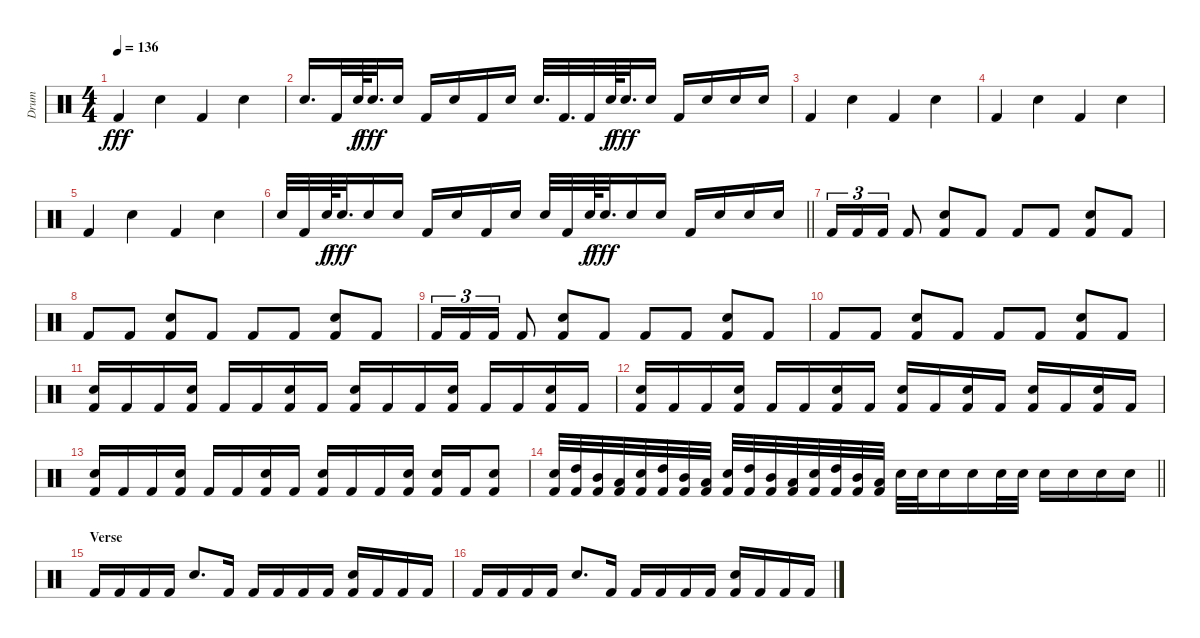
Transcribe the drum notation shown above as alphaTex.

\track ("Drum" "Drum") {instrument percussion}
\staff {score}
\articulation defaults
\ts (4 4)
\tempo 136
\clef neutral
\ks c "Kick (hit) 2".4{dy fff} "Electric Snare (hit)".4 "Kick (hit) 2".4 "Electric Snare (hit)".4
|
"Electric Snare (hit)".16{d} "Kick (hit) 2".32 "Electric Snare (hit)".64{dy f} "Electric Snare (hit)".32{d dy fff} "Electric Snare (hit)".16 "Kick (hit) 2".16 "Electric Snare (hit)".16 "Kick (hit) 2".16 "Electric Snare (hit)".16 "Electric Snare (hit)".32{d} "Kick (hit) 2".32{d} "Kick (hit) 2".32 "Electric Snare (hit)".64{dy f} "Electric Snare (hit)".32{d dy fff} "Electric Snare (hit)".16 "Kick (hit) 2".16 "Electric Snare (hit)".16 "Electric Snare (hit)".16 "Electric Snare (hit)".16 |
"Kick (hit) 2".4 "Electric Snare (hit)".4 "Kick (hit) 2".4 "Electric Snare (hit)".4 |
"Kick (hit) 2".4 "Electric Snare (hit)".4 "Kick (hit) 2".4 "Electric Snare (hit)".4 |
"Kick (hit) 2".4 "Electric Snare (hit)".4 "Kick (hit) 2".4 "Electric Snare (hit)".4 |
\barLineRight lightlight "Electric Snare (hit)".32 "Kick (hit) 2".32 "Electric Snare (hit)".64{dy f} "Electric Snare (hit)".32{d dy fff} "Electric Snare (hit)".16 "Electric Snare (hit)".16 "Kick (hit) 2".16 "Electric Snare (hit)".16 "Kick (hit) 2".16 "Electric Snare (hit)".16 "Electric Snare (hit)".32 "Kick (hit) 2".32 "Electric Snare (hit)".64{dy f} "Electric Snare (hit)".32{d dy fff} "Electric Snare (hit)".16 "Electric Snare (hit)".16 "Kick (hit) 2".16 "Electric Snare (hit)".16 "Electric Snare (hit)".16 "Electric Snare (hit)".16
|
"Kick (hit) 2".16{tu (3 2)} "Kick (hit) 2".16{tu (3 2)} "Kick (hit) 2".16{tu (3 2)} "Kick (hit) 2".8 ("Electric Snare (hit)" "Kick (hit) 2").8 "Kick (hit) 2".8 "Kick (hit) 2".8 "Kick (hit) 2".8 ("Electric Snare (hit)" "Kick (hit) 2").8 "Kick (hit) 2".8 |
"Kick (hit) 2".8 "Kick (hit) 2".8 ("Electric Snare (hit)" "Kick (hit) 2").8 "Kick (hit) 2".8 "Kick (hit) 2".8 "Kick (hit) 2".8 ("Electric Snare (hit)" "Kick (hit) 2").8 "Kick (hit) 2".8 |
"Kick (hit) 2".16{tu (3 2)} "Kick (hit) 2".16{tu (3 2)} "Kick (hit) 2".16{tu (3 2)} "Kick (hit) 2".8 ("Electric Snare (hit)" "Kick (hit) 2").8 "Kick (hit) 2".8 "Kick (hit) 2".8 "Kick (hit) 2".8 ("Electric Snare (hit)" "Kick (hit) 2").8 "Kick (hit) 2".8 |
"Kick (hit) 2".8 "Kick (hit) 2".8 ("Electric Snare (hit)" "Kick (hit) 2").8 "Kick (hit) 2".8 "Kick (hit) 2".8 "Kick (hit) 2".8 ("Electric Snare (hit)" "Kick (hit) 2").8 "Kick (hit) 2".8 |
("Electric Snare (hit)" "Kick (hit) 2").16 "Kick (hit) 2".16 "Kick (hit) 2".16 ("Electric Snare (hit)" "Kick (hit) 2").16 "Kick (hit) 2".16 "Kick (hit) 2".16 ("Electric Snare (hit)" "Kick (hit) 2").16 "Kick (hit) 2".16 ("Electric Snare (hit)" "Kick (hit) 2").16 "Kick (hit) 2".16 "Kick (hit) 2".16 ("Electric Snare (hit)" "Kick (hit) 2").16 "Kick (hit) 2".16 "Kick (hit) 2".16 ("Electric Snare (hit)" "Kick (hit) 2").16 "Kick (hit) 2".16 |
("Electric Snare (hit)" "Kick (hit) 2").16 "Kick (hit) 2".16 "Kick (hit) 2".16 ("Electric Snare (hit)" "Kick (hit) 2").16 "Kick (hit) 2".16 "Kick (hit) 2".16 ("Electric Snare (hit)" "Kick (hit) 2").16 "Kick (hit) 2".16 ("Electric Snare (hit)" "Kick (hit) 2").16 "Kick (hit) 2".16 ("Electric Snare (hit)" "Kick (hit) 2").16 "Kick (hit) 2".16 ("Electric Snare (hit)" "Kick (hit) 2").16 "Kick (hit) 2".16 ("Electric Snare (hit)" "Kick (hit) 2").16 "Kick (hit) 2".16 |
("Electric Snare (hit)" "Kick (hit) 2").16 "Kick (hit) 2".16 "Kick (hit) 2".16 ("Electric Snare (hit)" "Kick (hit) 2").16 "Kick (hit) 2".16 "Kick (hit) 2".16 ("Electric Snare (hit)" "Kick (hit) 2").16 "Kick (hit) 2".16 ("Electric Snare (hit)" "Kick (hit) 2").16 "Kick (hit) 2".16 "Kick (hit) 2".16 ("Electric Snare (hit)" "Kick (hit) 2").16 ("Electric Snare (hit)" "Kick (hit) 2").16 "Kick (hit) 2".16 ("Electric Snare (hit)" "Kick (hit) 2").8 |
\barLineRight lightlight
("Electric Snare (hit)" "Kick (hit) 2").32 ("High Tom (hit)" "Kick (hit) 2").32 ("Mid Tom (hit)" "Kick (hit) 2").32 ("Low Tom (hit)" "Kick (hit) 2").32 ("Electric Snare (hit)" "Kick (hit) 2").32 ("High Tom (hit)" "Kick (hit) 2").32 ("Mid Tom (hit)" "Kick (hit) 2").32 ("Low Tom (hit)" "Kick (hit) 2").32 ("Electric Snare (hit)" "Kick (hit) 2").32 ("High Tom (hit)" "Kick (hit) 2").32 ("Mid Tom (hit)" "Kick (hit) 2").32 ("Low Tom (hit)" "Kick (hit) 2").32 ("Electric Snare (hit)" "Kick (hit) 2").32 ("High Tom (hit)" "Kick (hit) 2").32 ("Mid Tom (hit)" "Kick (hit) 2").32 ("Low Tom (hit)" "Kick (hit) 2").32 "Electric Snare (hit)".32 "Electric Snare (hit)".32 "Electric Snare (hit)".16 "Electric Snare (hit)".16 "Electric Snare (hit)".32 "Electric Snare (hit)".32 "Electric Snare (hit)".16 "Electric Snare (hit)".16 "Electric Snare (hit)".16 "Electric Snare (hit)".16 |
\section ("" "Verse")
"Kick (hit) 2".16 "Kick (hit) 2".16 "Kick (hit) 2".16 "Kick (hit) 2".16 "Electric Snare (hit)".8{d} "Kick (hit) 2".16 "Kick (hit) 2".16 "Kick (hit) 2".16 "Kick (hit) 2".16 "Kick (hit) 2".16 ("Electric Snare (hit)" "Kick (hit) 2").16 "Kick (hit) 2".16 "Kick (hit) 2".16 "Kick (hit) 2".16 |
"Kick (hit) 2".16 "Kick (hit) 2".16 "Kick (hit) 2".16 "Kick (hit) 2".16 "Electric Snare (hit)".8{d} "Kick (hit) 2".16 "Kick (hit) 2".16 "Kick (hit) 2".16 "Kick (hit) 2".16 "Kick (hit) 2".16 ("Electric Snare (hit)" "Kick (hit) 2").16 "Kick (hit) 2".16 "Kick (hit) 2".16 "Kick (hit) 2".16
